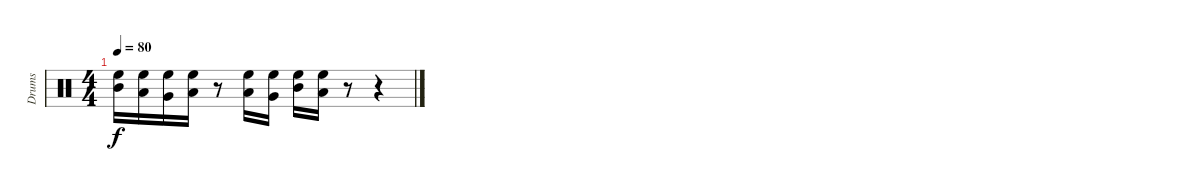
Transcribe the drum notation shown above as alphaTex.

\track ("Drums" "Drums") {instrument percussion}
\staff {score}
\articulation defaults
\ts (4 4)
\tempo 80
\clef neutral
\ks c
("High Floor Tom (hit)" "Mid Tom (hit)").16{dy f} ("High Floor Tom (hit)" "Low Tom (hit)").16 ("High Floor Tom (hit)" "Very Low Tom (hit)").16 ("High Floor Tom (hit)" "Low Floor Tom (hit)").16 r.8 ("High Floor Tom (hit)" "Low Tom (hit)").16 ("High Floor Tom (hit)" "Very Low Tom (hit)").16 ("High Floor Tom (hit)" "Mid Tom (hit)").16 ("High Floor Tom (hit)" "Low Tom (hit)").16 r.8 r.4
